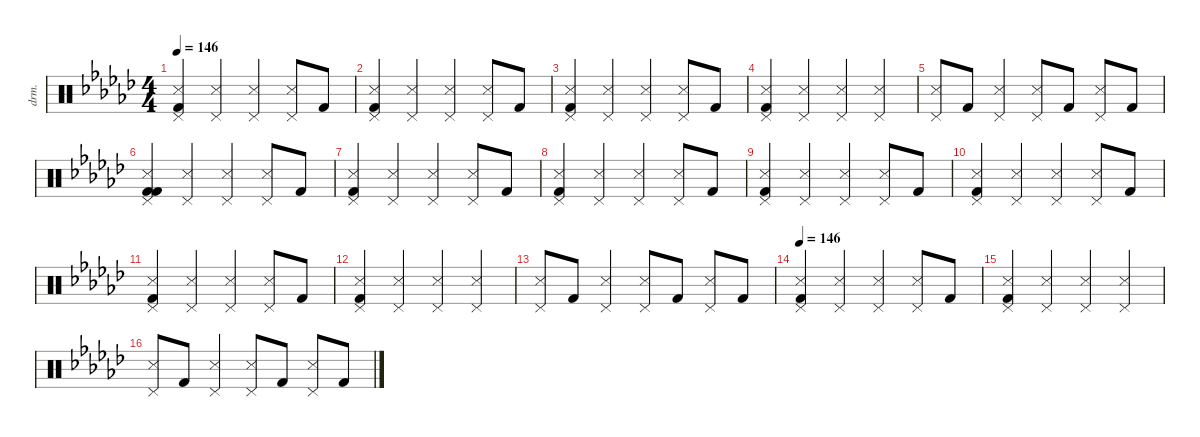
\defaultSystemsLayout 4
\hideDynamics
\bracketExtendMode nobrackets
\otherSystemsTrackNameOrientation horizontal
\track ("Drums" "drm.") {defaultSystemsLayout 4 instrument percussion}
\staff {score}
\articulation defaults
\ts (4 4)
\tempo 146
\clef neutral
\ks gb
("Pedal Hi-Hat (hit)"{acc forcenatural} "Kick (hit) 2"{acc forcenatural} "Snare (side stick) 3"{acc forcenatural}).4{dy f beam Up} ("Pedal Hi-Hat (hit)"{acc forcenatural} "Snare (side stick) 3"{acc forcenatural}).4{beam Up} ("Pedal Hi-Hat (hit)"{acc forcenatural} "Snare (side stick) 3"{acc forcenatural}).4{beam Up} ("Pedal Hi-Hat (hit)"{acc forcenatural} "Snare (side stick) 3"{acc forcenatural}).8{beam Up} "Kick (hit) 2"{acc forcenatural}.8{beam Up} |
("Pedal Hi-Hat (hit)"{acc forcenatural} "Kick (hit) 2"{acc forcenatural} "Snare (side stick) 3"{acc forcenatural}).4{beam Up} ("Pedal Hi-Hat (hit)"{acc forcenatural} "Snare (side stick) 3"{acc forcenatural}).4{beam Up} ("Pedal Hi-Hat (hit)"{acc forcenatural} "Snare (side stick) 3"{acc forcenatural}).4{beam Up} ("Pedal Hi-Hat (hit)"{acc forcenatural} "Snare (side stick) 3"{acc forcenatural}).8{beam Up} "Kick (hit) 2"{acc forcenatural}.8{beam Up} |
("Pedal Hi-Hat (hit)"{acc forcenatural} "Kick (hit) 2"{acc forcenatural} "Snare (side stick) 3"{acc forcenatural}).4{beam Up} ("Pedal Hi-Hat (hit)"{acc forcenatural} "Snare (side stick) 3"{acc forcenatural}).4{beam Up} ("Pedal Hi-Hat (hit)"{acc forcenatural} "Snare (side stick) 3"{acc forcenatural}).4{beam Up} ("Pedal Hi-Hat (hit)"{acc forcenatural} "Snare (side stick) 3"{acc forcenatural}).8{beam Up} "Kick (hit) 2"{acc forcenatural}.8{beam Up} |
("Pedal Hi-Hat (hit)"{acc forcenatural} "Kick (hit) 2"{acc forcenatural} "Snare (side stick) 3"{acc forcenatural}).4{beam Up} ("Pedal Hi-Hat (hit)"{acc forcenatural} "Snare (side stick) 3"{acc forcenatural}).4{beam Up} ("Pedal Hi-Hat (hit)"{acc forcenatural} "Snare (side stick) 3"{acc forcenatural}).4{beam Up} ("Pedal Hi-Hat (hit)"{acc forcenatural} "Snare (side stick) 3"{acc forcenatural}).4{beam Up} |
("Pedal Hi-Hat (hit)"{acc forcenatural} "Snare (side stick) 3"{acc forcenatural}).8{beam Up} "Kick (hit) 2"{acc forcenatural}.8{beam Up} ("Pedal Hi-Hat (hit)"{acc forcenatural} "Snare (side stick) 3"{acc forcenatural}).4{beam Up} ("Pedal Hi-Hat (hit)"{acc forcenatural} "Snare (side stick) 3"{acc forcenatural}).8{beam Up} "Kick (hit) 2"{acc forcenatural}.8{beam Up} ("Pedal Hi-Hat (hit)"{acc forcenatural} "Snare (side stick) 3"{acc forcenatural}).8{beam Up} "Kick (hit) 2"{acc forcenatural}.8{beam Up} |
("Pedal Hi-Hat (hit)"{acc forcenatural} "Kick (hit) 2"{acc forcenatural} "Kick (hit) 2"{acc forcenatural} "Snare (side stick) 3"{acc forcenatural}).4{beam Up} ("Pedal Hi-Hat (hit)"{acc forcenatural} "Snare (side stick) 3"{acc forcenatural}).4{beam Up} ("Pedal Hi-Hat (hit)"{acc forcenatural} "Snare (side stick) 3"{acc forcenatural}).4{beam Up} ("Pedal Hi-Hat (hit)"{acc forcenatural} "Snare (side stick) 3"{acc forcenatural}).8{beam Up} "Kick (hit) 2"{acc forcenatural}.8{beam Up} |
("Pedal Hi-Hat (hit)"{acc forcenatural} "Kick (hit) 2"{acc forcenatural} "Snare (side stick) 3"{acc forcenatural}).4{beam Up} ("Pedal Hi-Hat (hit)"{acc forcenatural} "Snare (side stick) 3"{acc forcenatural}).4{beam Up} ("Pedal Hi-Hat (hit)"{acc forcenatural} "Snare (side stick) 3"{acc forcenatural}).4{beam Up} ("Pedal Hi-Hat (hit)"{acc forcenatural} "Snare (side stick) 3"{acc forcenatural}).8{beam Up} "Kick (hit) 2"{acc forcenatural}.8{beam Up} |
("Pedal Hi-Hat (hit)"{acc forcenatural} "Kick (hit) 2"{acc forcenatural} "Snare (side stick) 3"{acc forcenatural}).4{beam Up} ("Pedal Hi-Hat (hit)"{acc forcenatural} "Snare (side stick) 3"{acc forcenatural}).4{beam Up} ("Pedal Hi-Hat (hit)"{acc forcenatural} "Snare (side stick) 3"{acc forcenatural}).4{beam Up} ("Pedal Hi-Hat (hit)"{acc forcenatural} "Snare (side stick) 3"{acc forcenatural}).8{beam Up} "Kick (hit) 2"{acc forcenatural}.8{beam Up} |
("Pedal Hi-Hat (hit)"{acc forcenatural} "Kick (hit) 2"{acc forcenatural} "Snare (side stick) 3"{acc forcenatural}).4{beam Up} ("Pedal Hi-Hat (hit)"{acc forcenatural} "Snare (side stick) 3"{acc forcenatural}).4{beam Up} ("Pedal Hi-Hat (hit)"{acc forcenatural} "Snare (side stick) 3"{acc forcenatural}).4{beam Up} ("Pedal Hi-Hat (hit)"{acc forcenatural} "Snare (side stick) 3"{acc forcenatural}).8{beam Up} "Kick (hit) 2"{acc forcenatural}.8{beam Up} |
("Pedal Hi-Hat (hit)"{acc forcenatural} "Kick (hit) 2"{acc forcenatural} "Snare (side stick) 3"{acc forcenatural}).4{beam Up} ("Pedal Hi-Hat (hit)"{acc forcenatural} "Snare (side stick) 3"{acc forcenatural}).4{beam Up} ("Pedal Hi-Hat (hit)"{acc forcenatural} "Snare (side stick) 3"{acc forcenatural}).4{beam Up} ("Pedal Hi-Hat (hit)"{acc forcenatural} "Snare (side stick) 3"{acc forcenatural}).8{beam Up} "Kick (hit) 2"{acc forcenatural}.8{beam Up} |
("Pedal Hi-Hat (hit)"{acc forcenatural} "Kick (hit) 2"{acc forcenatural} "Snare (side stick) 3"{acc forcenatural}).4{beam Up} ("Pedal Hi-Hat (hit)"{acc forcenatural} "Snare (side stick) 3"{acc forcenatural}).4{beam Up} ("Pedal Hi-Hat (hit)"{acc forcenatural} "Snare (side stick) 3"{acc forcenatural}).4{beam Up} ("Pedal Hi-Hat (hit)"{acc forcenatural} "Snare (side stick) 3"{acc forcenatural}).8{beam Up} "Kick (hit) 2"{acc forcenatural}.8{beam Up} |
("Pedal Hi-Hat (hit)"{acc forcenatural} "Kick (hit) 2"{acc forcenatural} "Snare (side stick) 3"{acc forcenatural}).4{beam Up} ("Pedal Hi-Hat (hit)"{acc forcenatural} "Snare (side stick) 3"{acc forcenatural}).4{beam Up} ("Pedal Hi-Hat (hit)"{acc forcenatural} "Snare (side stick) 3"{acc forcenatural}).4{beam Up} ("Pedal Hi-Hat (hit)"{acc forcenatural} "Snare (side stick) 3"{acc forcenatural}).4{beam Up} |
("Pedal Hi-Hat (hit)"{acc forcenatural} "Snare (side stick) 3"{acc forcenatural}).8{beam Up} "Kick (hit) 2"{acc forcenatural}.8{beam Up} ("Pedal Hi-Hat (hit)"{acc forcenatural} "Snare (side stick) 3"{acc forcenatural}).4{beam Up} ("Pedal Hi-Hat (hit)"{acc forcenatural} "Snare (side stick) 3"{acc forcenatural}).8{beam Up} "Kick (hit) 2"{acc forcenatural}.8{beam Up} ("Pedal Hi-Hat (hit)"{acc forcenatural} "Snare (side stick) 3"{acc forcenatural}).8{beam Up} "Kick (hit) 2"{acc forcenatural}.8{beam Up} |
\tempo 146
("Pedal Hi-Hat (hit)"{acc forcenatural} "Kick (hit) 2"{acc forcenatural} "Snare (side stick) 3"{acc forcenatural}).4{beam Up} ("Pedal Hi-Hat (hit)"{acc forcenatural} "Snare (side stick) 3"{acc forcenatural}).4{beam Up} ("Pedal Hi-Hat (hit)"{acc forcenatural} "Snare (side stick) 3"{acc forcenatural}).4{beam Up} ("Pedal Hi-Hat (hit)"{acc forcenatural} "Snare (side stick) 3"{acc forcenatural}).8{beam Up} "Kick (hit) 2"{acc forcenatural}.8{beam Up} |
("Pedal Hi-Hat (hit)"{acc forcenatural} "Kick (hit) 2"{acc forcenatural} "Snare (side stick) 3"{acc forcenatural}).4{beam Up} ("Pedal Hi-Hat (hit)"{acc forcenatural} "Snare (side stick) 3"{acc forcenatural}).4{beam Up} ("Pedal Hi-Hat (hit)"{acc forcenatural} "Snare (side stick) 3"{acc forcenatural}).4{beam Up} ("Pedal Hi-Hat (hit)"{acc forcenatural} "Snare (side stick) 3"{acc forcenatural}).4{beam Up} |
("Pedal Hi-Hat (hit)"{acc forcenatural} "Snare (side stick) 3"{acc forcenatural}).8{beam Up} "Kick (hit) 2"{acc forcenatural}.8{beam Up} ("Pedal Hi-Hat (hit)"{acc forcenatural} "Snare (side stick) 3"{acc forcenatural}).4{beam Up} ("Pedal Hi-Hat (hit)"{acc forcenatural} "Snare (side stick) 3"{acc forcenatural}).8{beam Up} "Kick (hit) 2"{acc forcenatural}.8{beam Up} ("Pedal Hi-Hat (hit)"{acc forcenatural} "Snare (side stick) 3"{acc forcenatural}).8{beam Up} "Kick (hit) 2"{acc forcenatural}.8{beam Up}
